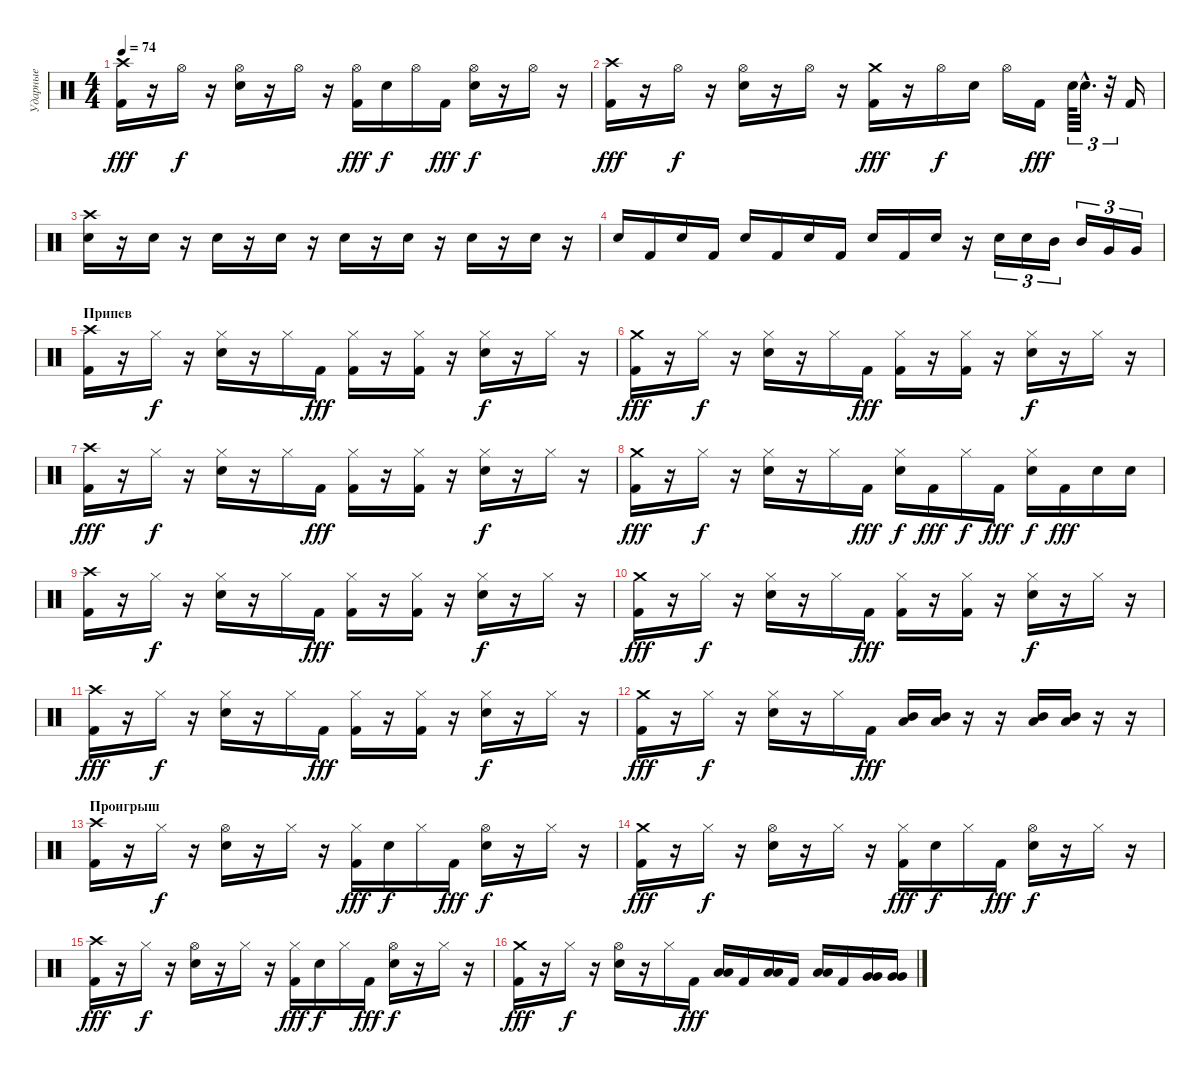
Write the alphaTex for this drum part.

\track ("Ударные" "Ударные") {instrument percussion}
\staff {score}
\articulation defaults
\ts (4 4)
\tempo 74
\clef neutral
\ks c
("Crash high (hit)" "Kick (hit) 2").16{dy fff} r.16 "Hi-Hat (open)".16{dy f} r.16 ("Hi-Hat (open)" "Electric Snare (hit)").16 r.16 "Hi-Hat (open)".16 r.16 ("Hi-Hat (open)" "Kick (hit) 2").16{dy fff} "Electric Snare (hit)".16{dy f} "Hi-Hat (open)".16 "Kick (hit) 2".16{dy fff} ("Hi-Hat (open)" "Electric Snare (hit)").16{dy f} r.16 "Hi-Hat (open)".16 r.16 |
("Crash high (hit)" "Kick (hit) 2").16{dy fff} r.16 "Hi-Hat (open)".16{dy f} r.16 ("Hi-Hat (open)" "Electric Snare (hit)").16 r.16 "Hi-Hat (open)".16 r.16 ("Crash medium (hit)" "Kick (hit) 2").16{dy fff} r.16 "Hi-Hat (open)".16{dy f} "Electric Snare (hit)".16 "Hi-Hat (open)".16 "Kick (hit) 2".16{dy fff} "Electric Snare (hit)".64{tu (3 2)} "Electric Snare (hit)"{hac}.32{d tu (3 2)} r.32{tu (3 2)} "Kick (hit) 2".16 |
("Crash high (hit)" "Electric Snare (hit)").16 r.16 "Electric Snare (hit)".16 r.16 "Electric Snare (hit)".16 r.16 "Electric Snare (hit)".16 r.16 "Electric Snare (hit)".16 r.16 "Electric Snare (hit)".16 r.16 "Electric Snare (hit)".16 r.16 "Electric Snare (hit)".16 r.16 |
"Electric Snare (hit)".16 "Kick (hit) 2".16 "Electric Snare (hit)".16 "Kick (hit) 2".16 "Electric Snare (hit)".16 "Kick (hit) 2".16 "Electric Snare (hit)".16 "Kick (hit) 2".16 "Electric Snare (hit)".16 "Kick (hit) 2".16 "Electric Snare (hit)".16 r.16 "Electric Snare (hit)".16{tu (3 2)} "Electric Snare (hit)".16{tu (3 2)} "Mid Tom (hit)".16{tu (3 2)} "Mid Tom (hit)".16{tu (3 2)} "Very Low Tom (hit)".16{tu (3 2)} "Very Low Tom (hit)".16{tu (3 2)} |
\section ("" "Припев")
("Crash high (hit)" "Kick (hit) 2").16 r.16 "Hi-Hat (closed)".16{dy f} r.16 ("Hi-Hat (closed)" "Electric Snare (hit)").16 r.16 "Hi-Hat (closed)".16 "Kick (hit) 2".16{dy fff} ("Hi-Hat (closed)" "Kick (hit) 2").16 r.16 ("Hi-Hat (closed)" "Kick (hit) 2").16 r.16 ("Hi-Hat (closed)" "Electric Snare (hit)").16{dy f} r.16 "Hi-Hat (closed)".16 r.16 |
("Crash medium (hit)" "Kick (hit) 2").16{dy fff} r.16 "Hi-Hat (closed)".16{dy f} r.16 ("Hi-Hat (closed)" "Electric Snare (hit)").16 r.16 "Hi-Hat (closed)".16 "Kick (hit) 2".16{dy fff} ("Hi-Hat (closed)" "Kick (hit) 2").16 r.16 ("Hi-Hat (closed)" "Kick (hit) 2").16 r.16 ("Hi-Hat (closed)" "Electric Snare (hit)").16{dy f} r.16 "Hi-Hat (closed)".16 r.16 |
("Crash high (hit)" "Kick (hit) 2").16{dy fff} r.16 "Hi-Hat (closed)".16{dy f} r.16 ("Hi-Hat (closed)" "Electric Snare (hit)").16 r.16 "Hi-Hat (closed)".16 "Kick (hit) 2".16{dy fff} ("Hi-Hat (closed)" "Kick (hit) 2").16 r.16 ("Hi-Hat (closed)" "Kick (hit) 2").16 r.16 ("Hi-Hat (closed)" "Electric Snare (hit)").16{dy f} r.16 "Hi-Hat (closed)".16 r.16 |
("Crash medium (hit)" "Kick (hit) 2").16{dy fff} r.16 "Hi-Hat (closed)".16{dy f} r.16 ("Hi-Hat (closed)" "Electric Snare (hit)").16 r.16 "Hi-Hat (closed)".16 "Kick (hit) 2".16{dy fff} ("Hi-Hat (closed)" "Electric Snare (hit)").16{dy f} "Kick (hit) 2".16{dy fff} "Hi-Hat (closed)".16{dy f} "Kick (hit) 2".16{dy fff} ("Hi-Hat (closed)" "Electric Snare (hit)").16{dy f} "Kick (hit) 2".16{dy fff} "Electric Snare (hit)".16 "Electric Snare (hit)".16 |
("Crash high (hit)" "Kick (hit) 2").16 r.16 "Hi-Hat (closed)".16{dy f} r.16 ("Hi-Hat (closed)" "Electric Snare (hit)").16 r.16 "Hi-Hat (closed)".16 "Kick (hit) 2".16{dy fff} ("Hi-Hat (closed)" "Kick (hit) 2").16 r.16 ("Hi-Hat (closed)" "Kick (hit) 2").16 r.16 ("Hi-Hat (closed)" "Electric Snare (hit)").16{dy f} r.16 "Hi-Hat (closed)".16 r.16 |
("Crash medium (hit)" "Kick (hit) 2").16{dy fff} r.16 "Hi-Hat (closed)".16{dy f} r.16 ("Hi-Hat (closed)" "Electric Snare (hit)").16 r.16 "Hi-Hat (closed)".16 "Kick (hit) 2".16{dy fff} ("Hi-Hat (closed)" "Kick (hit) 2").16 r.16 ("Hi-Hat (closed)" "Kick (hit) 2").16 r.16 ("Hi-Hat (closed)" "Electric Snare (hit)").16{dy f} r.16 "Hi-Hat (closed)".16 r.16 |
("Crash high (hit)" "Kick (hit) 2").16{dy fff} r.16 "Hi-Hat (closed)".16{dy f} r.16 ("Hi-Hat (closed)" "Electric Snare (hit)").16 r.16 "Hi-Hat (closed)".16 "Kick (hit) 2".16{dy fff} ("Hi-Hat (closed)" "Kick (hit) 2").16 r.16 ("Hi-Hat (closed)" "Kick (hit) 2").16 r.16 ("Hi-Hat (closed)" "Electric Snare (hit)").16{dy f} r.16 "Hi-Hat (closed)".16 r.16 |
("Crash medium (hit)" "Kick (hit) 2").16{dy fff} r.16 "Hi-Hat (closed)".16{dy f} r.16 ("Hi-Hat (closed)" "Electric Snare (hit)").16 r.16 "Hi-Hat (closed)".16 "Kick (hit) 2".16{dy fff} ("Mid Tom (hit)" "Low Tom (hit)").16 ("Mid Tom (hit)" "Low Tom (hit)").16 r.16 r.16 ("Mid Tom (hit)" "Low Tom (hit)").16 ("Mid Tom (hit)" "Low Tom (hit)").16 r.16 r.16 |
\section ("" "Проигрыш")
("Crash high (hit)" "Kick (hit) 2").16 r.16 "Hi-Hat (closed)".16{dy f} r.16 ("Hi-Hat (open)" "Electric Snare (hit)").16 r.16 "Hi-Hat (closed)".16 r.16 ("Hi-Hat (closed)" "Kick (hit) 2").16{dy fff} "Electric Snare (hit)".16{dy f} "Hi-Hat (closed)".16 "Kick (hit) 2".16{dy fff} ("Hi-Hat (open)" "Electric Snare (hit)").16{dy f} r.16 "Hi-Hat (closed)".16 r.16 |
("Crash medium (hit)" "Kick (hit) 2").16{dy fff} r.16 "Hi-Hat (closed)".16{dy f} r.16 ("Hi-Hat (open)" "Electric Snare (hit)").16 r.16 "Hi-Hat (closed)".16 r.16 ("Hi-Hat (closed)" "Kick (hit) 2").16{dy fff} "Electric Snare (hit)".16{dy f} "Hi-Hat (closed)".16 "Kick (hit) 2".16{dy fff} ("Hi-Hat (open)" "Electric Snare (hit)").16{dy f} r.16 "Hi-Hat (closed)".16 r.16 |
("Crash high (hit)" "Kick (hit) 2").16{dy fff} r.16 "Hi-Hat (closed)".16{dy f} r.16 ("Hi-Hat (open)" "Electric Snare (hit)").16 r.16 "Hi-Hat (closed)".16 r.16 ("Hi-Hat (closed)" "Kick (hit) 2").16{dy fff} "Electric Snare (hit)".16{dy f} "Hi-Hat (closed)".16 "Kick (hit) 2".16{dy fff} ("Hi-Hat (open)" "Electric Snare (hit)").16{dy f} r.16 "Hi-Hat (closed)".16 r.16 |
("Crash medium (hit)" "Kick (hit) 2").16{dy fff} r.16 "Hi-Hat (closed)".16{dy f} r.16 ("Hi-Hat (open)" "Electric Snare (hit)").16 r.16 "Hi-Hat (closed)".16 "Kick (hit) 2".16{dy fff} ("Low Tom (hit)" "Low Tom (hit)").16 "Kick (hit) 2".16 ("Low Floor Tom (hit)" "Low Floor Tom (hit)").16 "Kick (hit) 2".16 ("Low Tom (hit)" "Low Tom (hit)").16 "Kick (hit) 2".16 ("Very Low Tom (hit)" "Very Low Tom (hit)").16 ("Very Low Tom (hit)" "Very Low Tom (hit)").16
